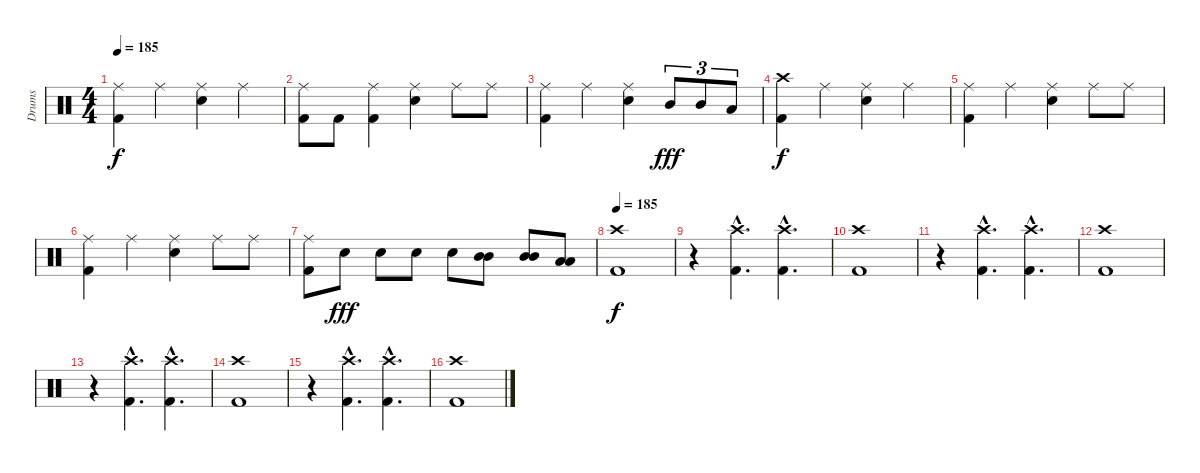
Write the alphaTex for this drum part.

\track ("Drums" "Drums") {instrument percussion}
\staff {score}
\articulation defaults
\ts (4 4)
\tempo 185
\clef neutral
\ks c
("Ride (middle)" "Kick (hit) 2").4{dy f} "Ride (middle)".4 ("Ride (middle)" "Snare (hit) 2").4 "Ride (middle)".4 |
("Ride (middle)" "Kick (hit) 2").8 "Kick (hit) 2".8 ("Ride (middle)" "Kick (hit) 2").4 ("Ride (middle)" "Snare (hit) 2").4 "Ride (middle)".8 "Ride (middle)".8 |
("Ride (middle)" "Kick (hit) 2").4 "Ride (middle)".4 ("Ride (middle)" "Snare (hit) 2").4 "Mid Tom (hit)".8{tu (3 2) dy fff} "Mid Tom (hit)".8{tu (3 2)} "Low Tom (hit)".8{tu (3 2)} |
("Crash high (hit)" "Kick (hit) 2").4{dy f} "Ride (middle)".4 ("Ride (middle)" "Snare (hit) 2").4 "Ride (middle)".4 |
("Ride (middle)" "Kick (hit) 2").4 "Ride (middle)".4 ("Ride (middle)" "Snare (hit) 2").4 "Ride (middle)".8 "Ride (middle)".8 |
("Ride (middle)" "Kick (hit) 2").4 "Ride (middle)".4 ("Ride (middle)" "Snare (hit) 2").4 "Ride (middle)".8 "Ride (middle)".8 |
("Ride (middle)" "Kick (hit) 2").8 "Snare (hit) 2".8{dy fff} "Snare (hit) 2".8 "Snare (hit) 2".8 "Snare (hit) 2".8 ("Mid Tom (hit)" "Mid Tom (hit)").8 ("Mid Tom (hit)" "Mid Tom (hit)").8 ("Low Tom (hit)" "Low Tom (hit)").8 |
\tempo 185
("Crash high (hit)" "Kick (hit) 2").1{dy f} |
r.4 ("Crash high (hit)"{hac} "Kick (hit) 2"{hac}).4{d} ("Crash high (hit)"{hac} "Kick (hit) 2"{hac}).4{d} |
("Crash high (hit)" "Kick (hit) 2").1 |
r.4 ("Crash high (hit)"{hac} "Kick (hit) 2"{hac}).4{d} ("Crash high (hit)"{hac} "Kick (hit) 2"{hac}).4{d} |
("Crash high (hit)" "Kick (hit) 2").1 |
r.4 ("Crash high (hit)"{hac} "Kick (hit) 2"{hac}).4{d} ("Crash high (hit)"{hac} "Kick (hit) 2"{hac}).4{d} |
("Crash high (hit)" "Kick (hit) 2").1 |
r.4 ("Crash high (hit)"{hac} "Kick (hit) 2"{hac}).4{d} ("Crash high (hit)"{hac} "Kick (hit) 2"{hac}).4{d} |
("Crash high (hit)" "Kick (hit) 2").1
